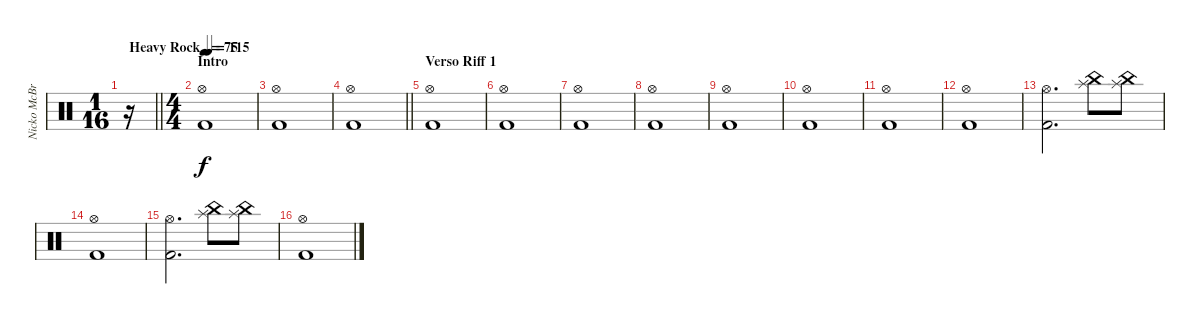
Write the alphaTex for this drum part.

\track ("Nicko McBrain" "Nicko McBr") {instrument percussion}
\staff {score}
\articulation defaults
\ts (1 16)
\tempo (115 "Heavy Rock")
\clef neutral
\barLineRight lightlight
\ks c
r.16{dy f} |
\ts (4 4)
\section ("" "Intro")
\tempo 75
("Kick (hit) 2" "Hi-Hat (open)").1 |
("Kick (hit) 2" "Hi-Hat (open)").1 |
\barLineRight lightlight
("Kick (hit) 2" "Hi-Hat (open)").1 |
\section ("" "Verso Riff 1")
("Kick (hit) 2" "Hi-Hat (open)").1 |
("Kick (hit) 2" "Hi-Hat (open)").1 |
("Kick (hit) 2" "Hi-Hat (open)").1 |
("Kick (hit) 2" "Hi-Hat (open)").1 |
("Kick (hit) 2" "Hi-Hat (open)").1 |
("Kick (hit) 2" "Hi-Hat (open)").1 |
("Kick (hit) 2" "Hi-Hat (open)").1 |
("Kick (hit) 2" "Hi-Hat (open)").1 |
("Kick (hit) 2" "Hi-Hat (open)").2{d} ("China (hit)" "Splash (hit)").8 ("China (hit)" "Splash (hit)").8 |
("Kick (hit) 2" "Hi-Hat (open)").1 |
("Kick (hit) 2" "Hi-Hat (open)").2{d} ("China (hit)" "Splash (hit)").8 ("China (hit)" "Splash (hit)").8 |
("Kick (hit) 2" "Hi-Hat (open)").1
